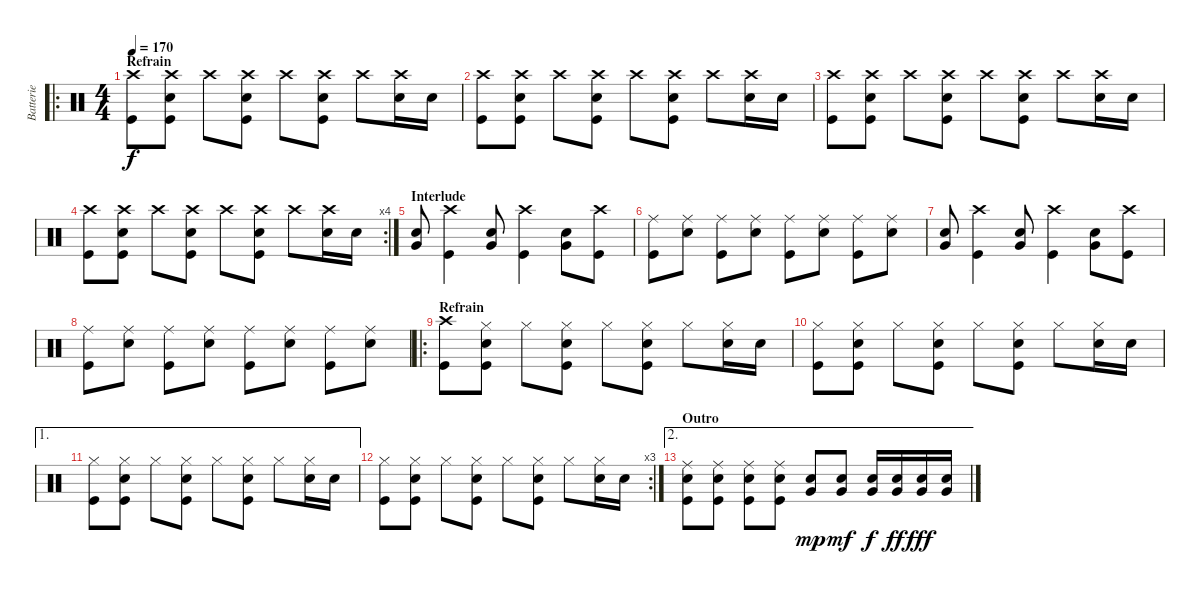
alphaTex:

\track ("Batterie" "Batterie") {instrument percussion}
\staff {score}
\articulation defaults
\ro
\ts (4 4)
\section ("" "Refrain")
\tempo 170
\clef neutral
\ks c
("Crash high (hit)" "Kick (hit)").8{dy f} ("Crash high (hit)" "Electric Snare (hit)" "Kick (hit)").8 "Crash high (hit)".8 ("Crash high (hit)" "Electric Snare (hit)" "Kick (hit)").8 "Crash high (hit)".8 ("Crash high (hit)" "Electric Snare (hit)" "Kick (hit)").8 "Crash high (hit)".8 ("Crash high (hit)" "Electric Snare (hit)").16 "Electric Snare (hit)".16 |
("Crash high (hit)" "Kick (hit)").8 ("Crash high (hit)" "Electric Snare (hit)" "Kick (hit)").8 "Crash high (hit)".8 ("Crash high (hit)" "Electric Snare (hit)" "Kick (hit)").8 "Crash high (hit)".8 ("Crash high (hit)" "Electric Snare (hit)" "Kick (hit)").8 "Crash high (hit)".8 ("Crash high (hit)" "Electric Snare (hit)").16 "Electric Snare (hit)".16 |
("Crash high (hit)" "Kick (hit)").8 ("Crash high (hit)" "Electric Snare (hit)" "Kick (hit)").8 "Crash high (hit)".8 ("Crash high (hit)" "Electric Snare (hit)" "Kick (hit)").8 "Crash high (hit)".8 ("Crash high (hit)" "Electric Snare (hit)" "Kick (hit)").8 "Crash high (hit)".8 ("Crash high (hit)" "Electric Snare (hit)").16 "Electric Snare (hit)".16 |
\rc 4
("Crash high (hit)" "Kick (hit)").8 ("Crash high (hit)" "Electric Snare (hit)" "Kick (hit)").8 "Crash high (hit)".8 ("Crash high (hit)" "Electric Snare (hit)" "Kick (hit)").8 "Crash high (hit)".8 ("Crash high (hit)" "Electric Snare (hit)" "Kick (hit)").8 "Crash high (hit)".8 ("Crash high (hit)" "Electric Snare (hit)").16 "Electric Snare (hit)".16 |
\section ("" "Interlude")
("Electric Snare (hit)" "Very Low Tom (hit)").8 ("Crash high (hit)" "Kick (hit)").4 ("Electric Snare (hit)" "Very Low Tom (hit)").8 ("Crash high (hit)" "Kick (hit)").4 ("Electric Snare (hit)" "Very Low Tom (hit)").8 ("Crash high (hit)" "Kick (hit)").8 |
("Ride (middle)" "Kick (hit)").8 ("Ride (middle)" "Electric Snare (hit)").8 ("Ride (middle)" "Kick (hit)").8 ("Ride (middle)" "Electric Snare (hit)").8 ("Ride (middle)" "Kick (hit)").8 ("Ride (middle)" "Electric Snare (hit)").8 ("Ride (middle)" "Kick (hit)").8 ("Ride (middle)" "Electric Snare (hit)").8 |
("Electric Snare (hit)" "Very Low Tom (hit)").8 ("Crash high (hit)" "Kick (hit)").4 ("Electric Snare (hit)" "Very Low Tom (hit)").8 ("Crash high (hit)" "Kick (hit)").4 ("Electric Snare (hit)" "Very Low Tom (hit)").8 ("Crash high (hit)" "Kick (hit)").8 |
("Ride (middle)" "Kick (hit)").8 ("Ride (middle)" "Electric Snare (hit)").8 ("Ride (middle)" "Kick (hit)").8 ("Ride (middle)" "Electric Snare (hit)").8 ("Ride (middle)" "Kick (hit)").8 ("Ride (middle)" "Electric Snare (hit)").8 ("Ride (middle)" "Kick (hit)").8 ("Ride (middle)" "Electric Snare (hit)").8 |
\ro
\section ("" "Refrain")
("Crash high (hit)" "Kick (hit)").8 ("Hi-Hat (closed)" "Electric Snare (hit)" "Kick (hit)").8 "Hi-Hat (closed)".8 ("Hi-Hat (closed)" "Electric Snare (hit)" "Kick (hit)").8 "Hi-Hat (closed)".8 ("Hi-Hat (closed)" "Electric Snare (hit)" "Kick (hit)").8 "Hi-Hat (closed)".8 ("Hi-Hat (closed)" "Electric Snare (hit)").16 "Electric Snare (hit)".16 |
("Hi-Hat (closed)" "Kick (hit)").8 ("Hi-Hat (closed)" "Electric Snare (hit)" "Kick (hit)").8 "Hi-Hat (closed)".8 ("Hi-Hat (closed)" "Electric Snare (hit)" "Kick (hit)").8 "Hi-Hat (closed)".8 ("Hi-Hat (closed)" "Electric Snare (hit)" "Kick (hit)").8 "Hi-Hat (closed)".8 ("Hi-Hat (closed)" "Electric Snare (hit)").16 "Electric Snare (hit)".16 |
\ae 1
("Hi-Hat (closed)" "Kick (hit)").8 ("Hi-Hat (closed)" "Electric Snare (hit)" "Kick (hit)").8 "Hi-Hat (closed)".8 ("Hi-Hat (closed)" "Electric Snare (hit)" "Kick (hit)").8 "Hi-Hat (closed)".8 ("Hi-Hat (closed)" "Electric Snare (hit)" "Kick (hit)").8 "Hi-Hat (closed)".8 ("Hi-Hat (closed)" "Electric Snare (hit)").16 "Electric Snare (hit)".16 |
\rc 3
("Hi-Hat (closed)" "Kick (hit)").8 ("Hi-Hat (closed)" "Electric Snare (hit)" "Kick (hit)").8 "Hi-Hat (closed)".8 ("Hi-Hat (closed)" "Electric Snare (hit)" "Kick (hit)").8 "Hi-Hat (closed)".8 ("Hi-Hat (closed)" "Electric Snare (hit)" "Kick (hit)").8 "Hi-Hat (closed)".8 ("Hi-Hat (closed)" "Electric Snare (hit)").16 "Electric Snare (hit)".16 |
\ae 2
\section ("" "Outro")
("Ride (middle)" "Electric Snare (hit)" "Kick (hit)").8 ("Ride (middle)" "Electric Snare (hit)" "Kick (hit)").8 ("Ride (middle)" "Electric Snare (hit)" "Kick (hit)").8 ("Ride (middle)" "Electric Snare (hit)" "Kick (hit)").8 ("Electric Snare (hit)" "Very Low Tom (hit)").8{dy mp} ("Electric Snare (hit)" "Very Low Tom (hit)").8{dy mf} ("Electric Snare (hit)" "Very Low Tom (hit)").16{dy f} ("Electric Snare (hit)" "Very Low Tom (hit)").16{dy ff} ("Electric Snare (hit)" "Very Low Tom (hit)").16{dy fff} ("Electric Snare (hit)" "Very Low Tom (hit)").16
